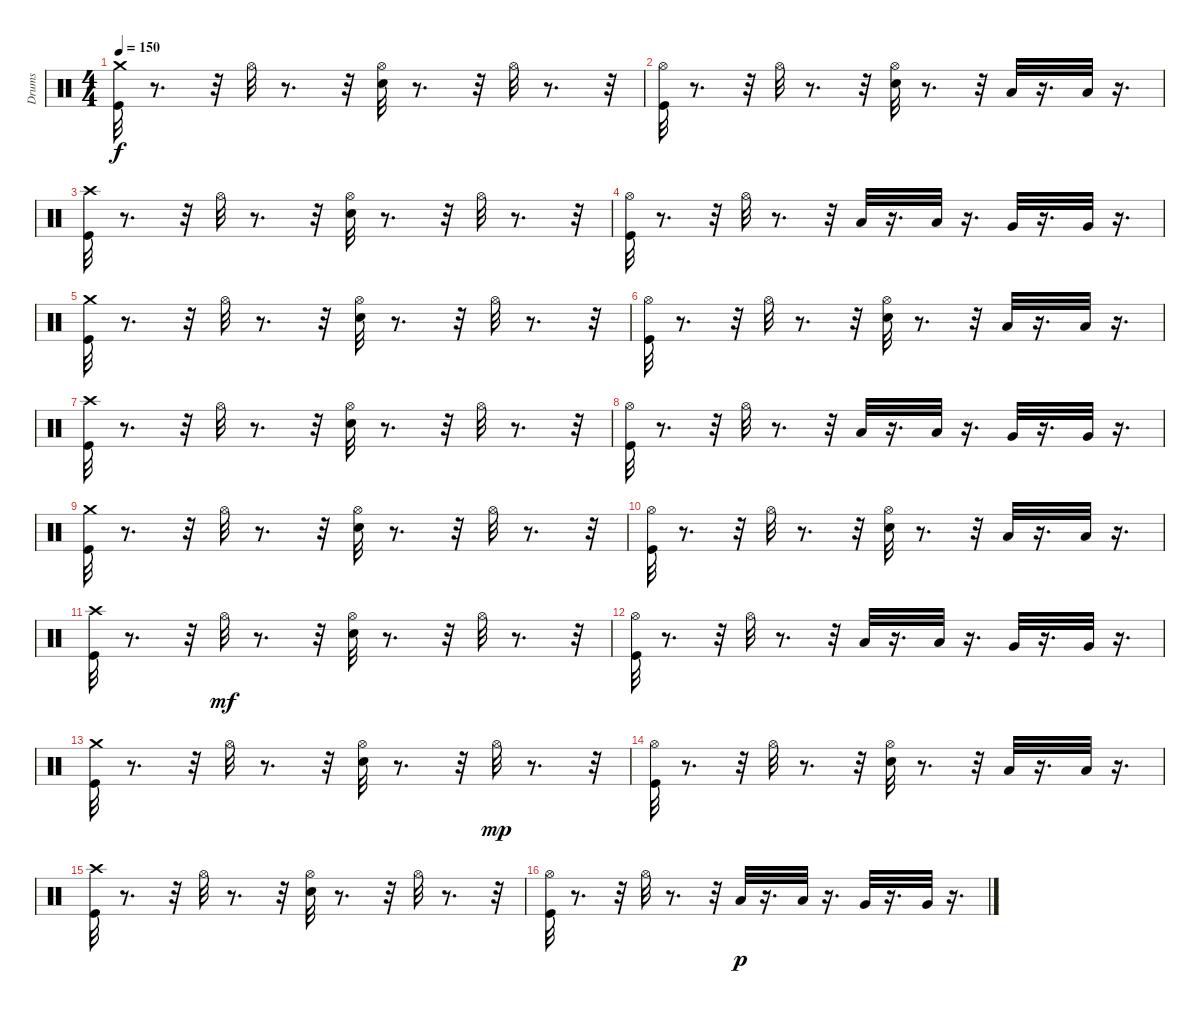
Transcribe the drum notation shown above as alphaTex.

\track ("Drums" "Drums") {instrument percussion}
\staff {score}
\articulation defaults
\ts (4 4)
\tempo 150
\clef neutral
\ks c
("Crash medium (hit)" "Kick (hit)").32{dy f} r.8{d} r.32 "Hi-Hat (open)".32 r.8{d} r.32 ("Hi-Hat (open)" "Electric Snare (hit)").32 r.8{d} r.32 "Hi-Hat (open)".32 r.8{d} r.32 |
("Hi-Hat (open)" "Kick (hit)").32 r.8{d} r.32 "Hi-Hat (open)".32 r.8{d} r.32 ("Hi-Hat (open)" "Electric Snare (hit)").32 r.8{d} r.32 "Low Tom (hit)".32 r.16{d} "Low Tom (hit)".32 r.16{d} |
("Kick (hit)" "Crash high (hit)").32 r.8{d} r.32 "Hi-Hat (open)".32 r.8{d} r.32 ("Hi-Hat (open)" "Electric Snare (hit)").32 r.8{d} r.32 "Hi-Hat (open)".32 r.8{d} r.32 |
("Hi-Hat (open)" "Kick (hit)").32 r.8{d} r.32 "Hi-Hat (open)".32 r.8{d} r.32 "Low Tom (hit)".32 r.16{d} "Low Tom (hit)".32 r.16{d} "Very Low Tom (hit)".32 r.16{d} "Very Low Tom (hit)".32 r.16{d} |
("Crash medium (hit)" "Kick (hit)").32 r.8{d} r.32 "Hi-Hat (open)".32 r.8{d} r.32 ("Hi-Hat (open)" "Electric Snare (hit)").32 r.8{d} r.32 "Hi-Hat (open)".32 r.8{d} r.32 |
("Hi-Hat (open)" "Kick (hit)").32 r.8{d} r.32 "Hi-Hat (open)".32 r.8{d} r.32 ("Hi-Hat (open)" "Electric Snare (hit)").32 r.8{d} r.32 "Low Tom (hit)".32 r.16{d} "Low Tom (hit)".32 r.16{d} |
("Kick (hit)" "Crash high (hit)").32 r.8{d} r.32 "Hi-Hat (open)".32 r.8{d} r.32 ("Hi-Hat (open)" "Electric Snare (hit)").32 r.8{d} r.32 "Hi-Hat (open)".32 r.8{d} r.32 |
("Hi-Hat (open)" "Kick (hit)").32 r.8{d} r.32 "Hi-Hat (open)".32 r.8{d} r.32 "Low Tom (hit)".32 r.16{d} "Low Tom (hit)".32 r.16{d} "Very Low Tom (hit)".32 r.16{d} "Very Low Tom (hit)".32 r.16{d} |
("Crash medium (hit)" "Kick (hit)").32 r.8{d} r.32 "Hi-Hat (open)".32 r.8{d} r.32 ("Hi-Hat (open)" "Electric Snare (hit)").32 r.8{d} r.32 "Hi-Hat (open)".32 r.8{d} r.32 |
("Hi-Hat (open)" "Kick (hit)").32 r.8{d} r.32 "Hi-Hat (open)".32 r.8{d} r.32 ("Hi-Hat (open)" "Electric Snare (hit)").32 r.8{d} r.32 "Low Tom (hit)".32 r.16{d} "Low Tom (hit)".32 r.16{d} |
("Kick (hit)" "Crash high (hit)").32 r.8{d} r.32 "Hi-Hat (open)".32{dy mf} r.8{d} r.32 ("Hi-Hat (open)" "Electric Snare (hit)").32 r.8{d} r.32 "Hi-Hat (open)".32 r.8{d} r.32 |
("Hi-Hat (open)" "Kick (hit)").32 r.8{d} r.32 "Hi-Hat (open)".32 r.8{d} r.32 "Low Tom (hit)".32 r.16{d} "Low Tom (hit)".32 r.16{d} "Very Low Tom (hit)".32 r.16{d} "Very Low Tom (hit)".32 r.16{d} |
("Crash medium (hit)" "Kick (hit)").32 r.8{d} r.32 "Hi-Hat (open)".32 r.8{d} r.32 ("Hi-Hat (open)" "Electric Snare (hit)").32 r.8{d} r.32 "Hi-Hat (open)".32{dy mp} r.8{d} r.32 |
("Hi-Hat (open)" "Kick (hit)").32 r.8{d} r.32 "Hi-Hat (open)".32 r.8{d} r.32 ("Hi-Hat (open)" "Electric Snare (hit)").32 r.8{d} r.32 "Low Tom (hit)".32 r.16{d} "Low Tom (hit)".32 r.16{d} |
("Kick (hit)" "Crash high (hit)").32 r.8{d} r.32 "Hi-Hat (open)".32 r.8{d} r.32 ("Hi-Hat (open)" "Electric Snare (hit)").32 r.8{d} r.32 "Hi-Hat (open)".32 r.8{d} r.32 |
("Hi-Hat (open)" "Kick (hit)").32 r.8{d} r.32 "Hi-Hat (open)".32 r.8{d} r.32 "Low Tom (hit)".32{dy p} r.16{d} "Low Tom (hit)".32 r.16{d} "Very Low Tom (hit)".32 r.16{d} "Very Low Tom (hit)".32 r.16{d}
